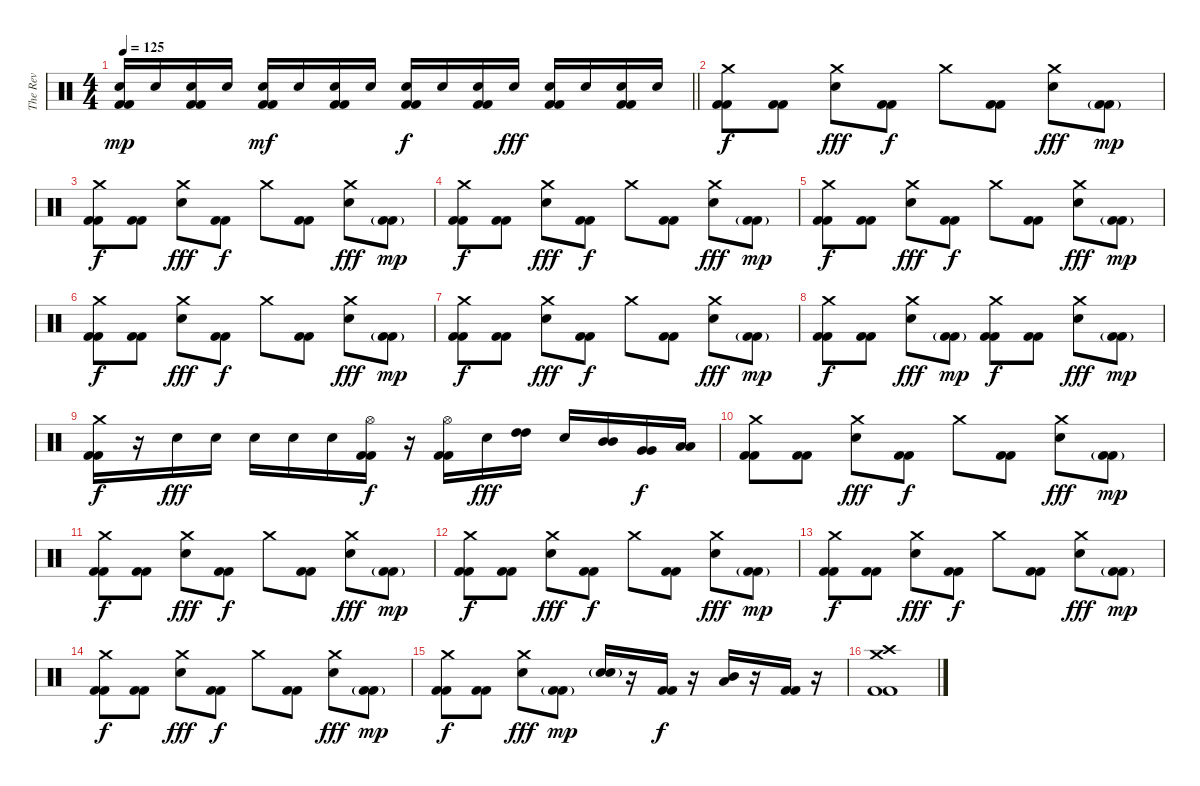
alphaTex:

\track ("The Rev" "The Rev") {mute instrument percussion}
\staff {score}
\articulation defaults
\ts (4 4)
\tempo 125
\clef neutral
\barLineRight lightlight
\ks c
("Electric Snare (hit)" "Kick (hit) 2" "Kick (hit) 2").16{dy mp} "Electric Snare (hit)".16 ("Electric Snare (hit)" "Kick (hit) 2" "Kick (hit) 2").16 "Electric Snare (hit)".16 ("Electric Snare (hit)" "Kick (hit) 2" "Kick (hit) 2").16{dy mf} "Electric Snare (hit)".16 ("Electric Snare (hit)" "Kick (hit) 2" "Kick (hit) 2").16 "Electric Snare (hit)".16 ("Electric Snare (hit)" "Kick (hit) 2" "Kick (hit) 2").16{dy f} "Electric Snare (hit)".16 ("Electric Snare (hit)" "Kick (hit) 2" "Kick (hit) 2").16 "Electric Snare (hit)".16{dy fff} ("Electric Snare (hit)" "Kick (hit) 2" "Kick (hit) 2").16 "Electric Snare (hit)".16 ("Electric Snare (hit)" "Kick (hit) 2" "Kick (hit) 2").16 "Electric Snare (hit)".16 |
("Crash medium (hit)" "Kick (hit) 2" "Kick (hit) 2").8{dy f volume 15} ("Kick (hit) 2" "Kick (hit) 2").8 ("Crash medium (hit)" "Electric Snare (hit)").8{dy fff} ("Kick (hit) 2" "Kick (hit) 2").8{dy f} "Crash medium (hit)".8 ("Kick (hit) 2" "Kick (hit) 2").8 ("Crash medium (hit)" "Electric Snare (hit)").8{dy fff} ("Kick (hit) 2"{g} "Kick (hit) 2"{g}).8{dy mp} |
("Crash medium (hit)" "Kick (hit) 2" "Kick (hit) 2").8{dy f} ("Kick (hit) 2" "Kick (hit) 2").8 ("Crash medium (hit)" "Electric Snare (hit)").8{dy fff} ("Kick (hit) 2" "Kick (hit) 2").8{dy f} "Crash medium (hit)".8 ("Kick (hit) 2" "Kick (hit) 2").8 ("Crash medium (hit)" "Electric Snare (hit)").8{dy fff} ("Kick (hit) 2"{g} "Kick (hit) 2"{g}).8{dy mp} |
("Crash medium (hit)" "Kick (hit) 2" "Kick (hit) 2").8{dy f} ("Kick (hit) 2" "Kick (hit) 2").8 ("Crash medium (hit)" "Electric Snare (hit)").8{dy fff} ("Kick (hit) 2" "Kick (hit) 2").8{dy f} "Crash medium (hit)".8 ("Kick (hit) 2" "Kick (hit) 2").8 ("Crash medium (hit)" "Electric Snare (hit)").8{dy fff} ("Kick (hit) 2"{g} "Kick (hit) 2"{g}).8{dy mp} |
("Crash medium (hit)" "Kick (hit) 2" "Kick (hit) 2").8{dy f} ("Kick (hit) 2" "Kick (hit) 2").8 ("Crash medium (hit)" "Electric Snare (hit)").8{dy fff} ("Kick (hit) 2" "Kick (hit) 2").8{dy f} "Crash medium (hit)".8 ("Kick (hit) 2" "Kick (hit) 2").8 ("Crash medium (hit)" "Electric Snare (hit)").8{dy fff} ("Kick (hit) 2"{g} "Kick (hit) 2"{g}).8{dy mp} |
("Crash medium (hit)" "Kick (hit) 2" "Kick (hit) 2").8{dy f} ("Kick (hit) 2" "Kick (hit) 2").8 ("Crash medium (hit)" "Electric Snare (hit)").8{dy fff} ("Kick (hit) 2" "Kick (hit) 2").8{dy f} "Crash medium (hit)".8 ("Kick (hit) 2" "Kick (hit) 2").8 ("Crash medium (hit)" "Electric Snare (hit)").8{dy fff} ("Kick (hit) 2"{g} "Kick (hit) 2"{g}).8{dy mp} |
("Crash medium (hit)" "Kick (hit) 2" "Kick (hit) 2").8{dy f} ("Kick (hit) 2" "Kick (hit) 2").8 ("Crash medium (hit)" "Electric Snare (hit)").8{dy fff} ("Kick (hit) 2" "Kick (hit) 2").8{dy f} "Crash medium (hit)".8 ("Kick (hit) 2" "Kick (hit) 2").8 ("Crash medium (hit)" "Electric Snare (hit)").8{dy fff} ("Kick (hit) 2"{g} "Kick (hit) 2"{g}).8{dy mp} |
("Crash medium (hit)" "Kick (hit) 2" "Kick (hit) 2").8{dy f} ("Kick (hit) 2" "Kick (hit) 2").8 ("Crash medium (hit)" "Electric Snare (hit)").8{dy fff} ("Kick (hit) 2"{g} "Kick (hit) 2"{g}).8{dy mp} ("Crash medium (hit)" "Kick (hit) 2" "Kick (hit) 2").8{dy f} ("Kick (hit) 2" "Kick (hit) 2").8 ("Crash medium (hit)" "Electric Snare (hit)").8{dy fff} ("Kick (hit) 2"{g} "Kick (hit) 2"{g}).8{dy mp} |
("Crash medium (hit)" "Kick (hit) 2" "Kick (hit) 2").16{dy f} r.16 "Electric Snare (hit)".16{dy fff} "Electric Snare (hit)".16 "Electric Snare (hit)".16 "Electric Snare (hit)".16 "Electric Snare (hit)".16 ("Hi-Hat (open)" "Kick (hit) 2" "Kick (hit) 2").16{dy f} r.16 ("Hi-Hat (open)" "Kick (hit) 2" "Kick (hit) 2").16 "Electric Snare (hit)".16{dy fff} ("High Tom (hit)" "High Tom (hit)").16 "Electric Snare (hit)".16 ("Mid Tom (hit)" "Mid Tom (hit)").16 ("Very Low Tom (hit)" "Very Low Tom (hit)").16{dy f} ("Low Floor Tom (hit)" "Low Floor Tom (hit)").16 |
("Crash medium (hit)" "Kick (hit) 2" "Kick (hit) 2").8 ("Kick (hit) 2" "Kick (hit) 2").8 ("Crash medium (hit)" "Electric Snare (hit)").8{dy fff} ("Kick (hit) 2" "Kick (hit) 2").8{dy f} "Crash medium (hit)".8 ("Kick (hit) 2" "Kick (hit) 2").8 ("Crash medium (hit)" "Electric Snare (hit)").8{dy fff} ("Kick (hit) 2"{g} "Kick (hit) 2"{g}).8{dy mp} |
("Crash medium (hit)" "Kick (hit) 2" "Kick (hit) 2").8{dy f} ("Kick (hit) 2" "Kick (hit) 2").8 ("Crash medium (hit)" "Electric Snare (hit)").8{dy fff} ("Kick (hit) 2" "Kick (hit) 2").8{dy f} "Crash medium (hit)".8 ("Kick (hit) 2" "Kick (hit) 2").8 ("Crash medium (hit)" "Electric Snare (hit)").8{dy fff} ("Kick (hit) 2"{g} "Kick (hit) 2"{g}).8{dy mp} |
("Crash medium (hit)" "Kick (hit) 2" "Kick (hit) 2").8{dy f} ("Kick (hit) 2" "Kick (hit) 2").8 ("Crash medium (hit)" "Electric Snare (hit)").8{dy fff} ("Kick (hit) 2" "Kick (hit) 2").8{dy f} "Crash medium (hit)".8 ("Kick (hit) 2" "Kick (hit) 2").8 ("Crash medium (hit)" "Electric Snare (hit)").8{dy fff} ("Kick (hit) 2"{g} "Kick (hit) 2"{g}).8{dy mp} |
("Crash medium (hit)" "Kick (hit) 2" "Kick (hit) 2").8{dy f} ("Kick (hit) 2" "Kick (hit) 2").8 ("Crash medium (hit)" "Electric Snare (hit)").8{dy fff} ("Kick (hit) 2" "Kick (hit) 2").8{dy f} "Crash medium (hit)".8 ("Kick (hit) 2" "Kick (hit) 2").8 ("Crash medium (hit)" "Electric Snare (hit)").8{dy fff} ("Kick (hit) 2"{g} "Kick (hit) 2"{g}).8{dy mp} |
("Crash medium (hit)" "Kick (hit) 2" "Kick (hit) 2").8{dy f} ("Kick (hit) 2" "Kick (hit) 2").8 ("Crash medium (hit)" "Electric Snare (hit)").8{dy fff} ("Kick (hit) 2" "Kick (hit) 2").8{dy f} "Crash medium (hit)".8 ("Kick (hit) 2" "Kick (hit) 2").8 ("Crash medium (hit)" "Electric Snare (hit)").8{dy fff} ("Kick (hit) 2"{g} "Kick (hit) 2"{g}).8{dy mp} |
("Crash medium (hit)" "Kick (hit) 2" "Kick (hit) 2").8{dy f} ("Kick (hit) 2" "Kick (hit) 2").8 ("Crash medium (hit)" "Electric Snare (hit)").8{dy fff} ("Kick (hit) 2"{g} "Kick (hit) 2"{g}).8{dy mp} ("Electric Snare (hit)" "Electric Snare (hit)"{g}).16 r.16 ("Kick (hit) 2" "Kick (hit) 2").16{dy f} r.16 ("Mid Tom (hit)" "Low Floor Tom (hit)").16 r.16 ("Kick (hit) 2" "Kick (hit) 2").16 r.16 |
("Crash high (hit)" "Crash medium (hit)" "Kick (hit) 2" "Kick (hit) 2").1
